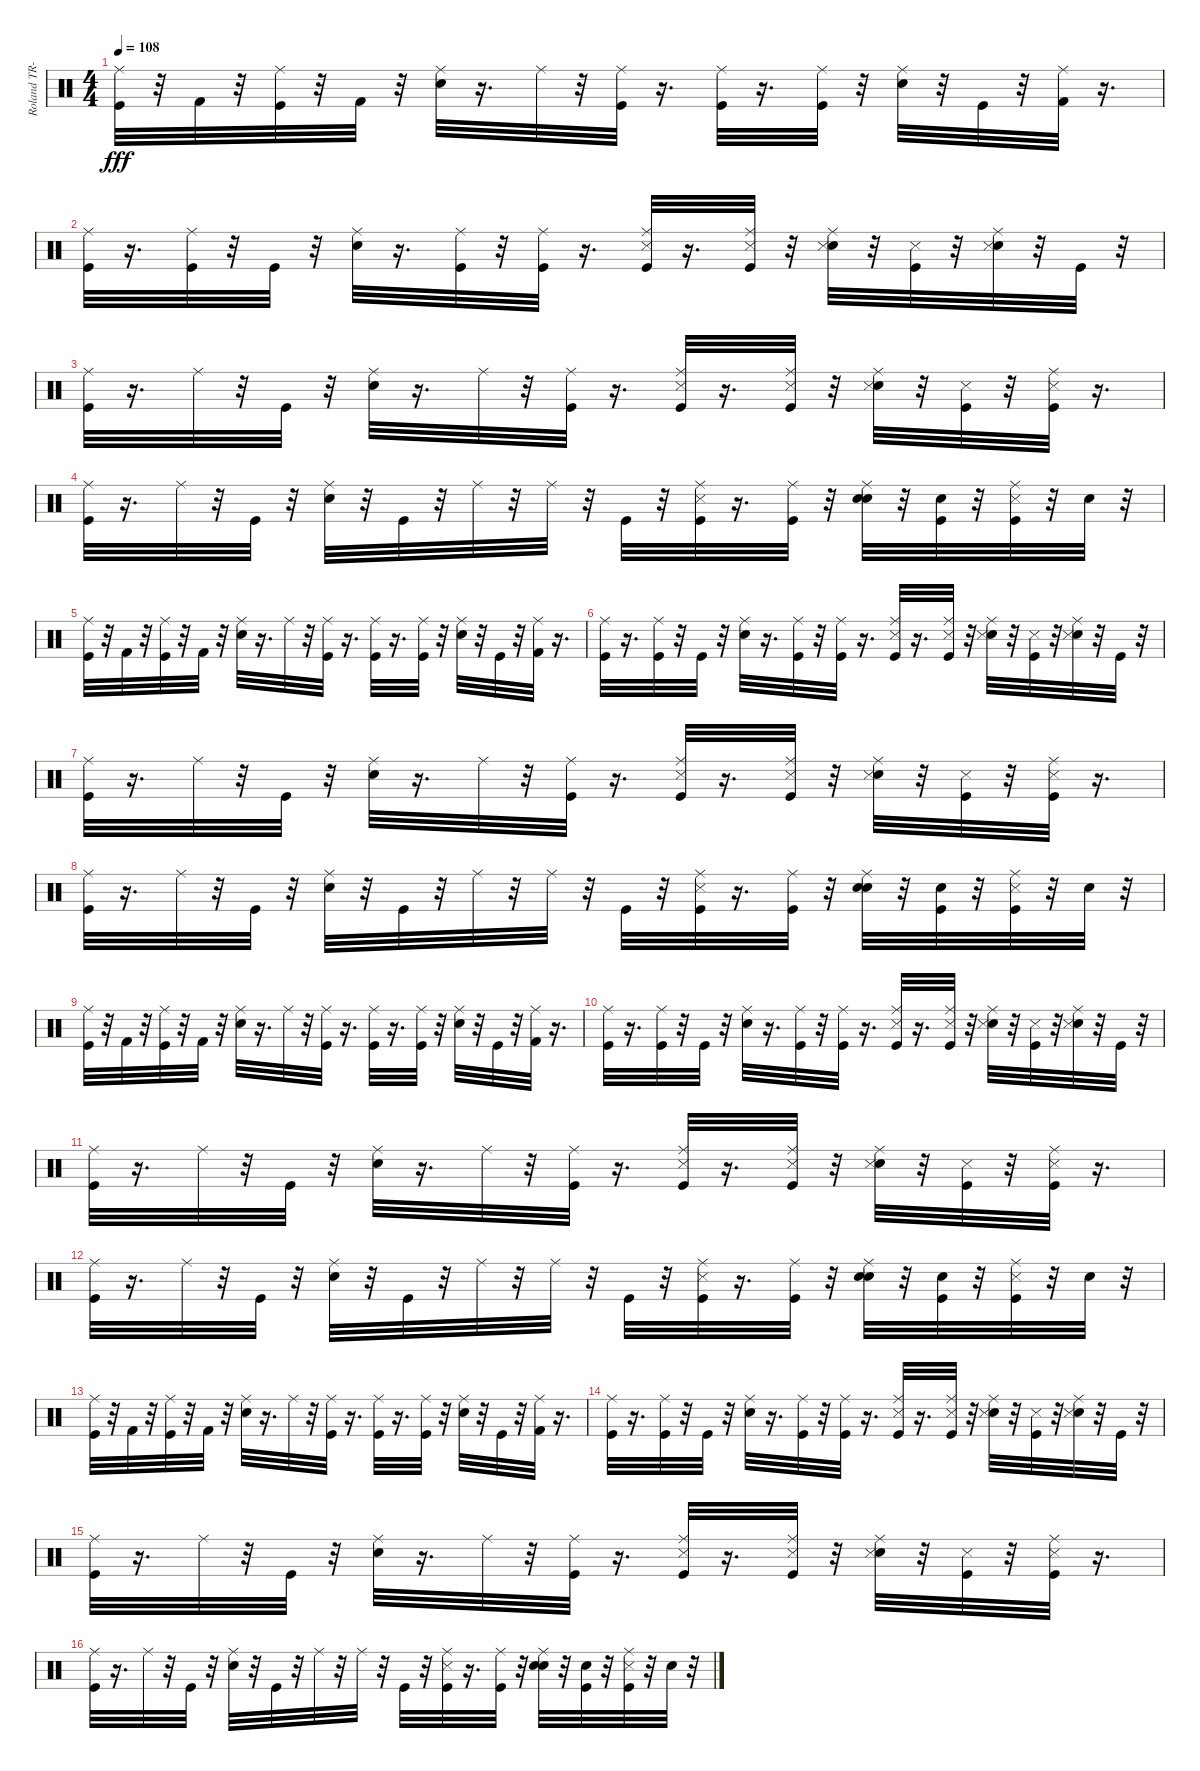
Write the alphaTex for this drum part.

\track ("Roland TR-707" "Roland TR-") {instrument percussion}
\staff {score}
\articulation defaults
\ts (4 4)
\tempo 108
\clef neutral
\ks c
("Kick (hit)" "Ride (middle)").32{dy fff} r.32 "Kick (hit) 2".32 r.32 ("Kick (hit)" "Ride (middle)").32 r.32 "Kick (hit) 2".32 r.32 ("Snare (hit) 2" "Ride (middle)").32 r.16{d} "Ride (middle)".32 r.32 ("Kick (hit)" "Ride (middle)").32 r.16{d} ("Kick (hit)" "Ride (middle)").32 r.16{d} ("Kick (hit)" "Ride (middle)").32 r.32 ("Snare (hit) 2" "Ride (middle)").32 r.32 "Kick (hit)".32 r.32 ("Kick (hit) 2" "Ride (middle)").32 r.16{d} |
("Kick (hit)" "Ride (middle)").32 r.16{d} ("Kick (hit)" "Ride (middle)").32 r.32 "Kick (hit)".32 r.32 ("Snare (hit) 2" "Ride (middle)").32 r.16{d} ("Kick (hit)" "Ride (middle)").32 r.32 ("Kick (hit)" "Ride (middle)").32 r.16{d} ("Kick (hit)" "Snare (side stick) 3" "Ride (middle)").32 r.16{d} ("Kick (hit)" "Snare (side stick) 3" "Ride (middle)").32 r.32 ("Snare (hit) 2" "Snare (side stick) 3" "Ride (middle)").32 r.32 ("Kick (hit)" "Snare (side stick) 3").32 r.32 ("Snare (hit) 2" "Snare (side stick) 3" "Ride (middle)").32 r.32 "Kick (hit)".32 r.32 |
("Kick (hit)" "Ride (middle)").32 r.16{d} "Ride (middle)".32 r.32 "Kick (hit)".32 r.32 ("Snare (hit) 2" "Ride (middle)").32 r.16{d} "Ride (middle)".32 r.32 ("Kick (hit)" "Ride (middle)").32 r.16{d} ("Kick (hit)" "Snare (side stick) 3" "Ride (middle)").32 r.16{d} ("Kick (hit)" "Snare (side stick) 3" "Ride (middle)").32 r.32 ("Snare (hit) 2" "Snare (side stick) 3" "Ride (middle)").32 r.32 ("Kick (hit)" "Snare (side stick) 3").32 r.32 ("Kick (hit)" "Snare (side stick) 3" "Ride (middle)").32 r.16{d} |
("Kick (hit)" "Ride (middle)").32 r.16{d} "Ride (middle)".32 r.32 "Kick (hit)".32 r.32 ("Snare (hit) 2" "Ride (middle)").32 r.32 "Kick (hit)".32 r.32 "Ride (middle)".32 r.32 "Ride (middle)".32 r.32 "Kick (hit)".32 r.32 ("Kick (hit)" "Snare (side stick) 3" "Ride (middle)").32 r.16{d} ("Kick (hit)" "Ride (middle)").32 r.32 ("Snare (hit) 2" "Hand Clap (hit)" "Ride (middle)").32 r.32 ("Kick (hit)" "Hand Clap (hit)").32 r.32 ("Kick (hit)" "Snare (side stick) 3" "Ride (middle)").32 r.32 "Hand Clap (hit)".32 r.32 |
("Kick (hit)" "Ride (middle)").32 r.32 "Kick (hit) 2".32 r.32 ("Kick (hit)" "Ride (middle)").32 r.32 "Kick (hit) 2".32 r.32 ("Snare (hit) 2" "Ride (middle)").32 r.16{d} "Ride (middle)".32 r.32 ("Kick (hit)" "Ride (middle)").32 r.16{d} ("Kick (hit)" "Ride (middle)").32 r.16{d} ("Kick (hit)" "Ride (middle)").32 r.32 ("Snare (hit) 2" "Ride (middle)").32 r.32 "Kick (hit)".32 r.32 ("Kick (hit) 2" "Ride (middle)").32 r.16{d} |
("Kick (hit)" "Ride (middle)").32 r.16{d} ("Kick (hit)" "Ride (middle)").32 r.32 "Kick (hit)".32 r.32 ("Snare (hit) 2" "Ride (middle)").32 r.16{d} ("Kick (hit)" "Ride (middle)").32 r.32 ("Kick (hit)" "Ride (middle)").32 r.16{d} ("Kick (hit)" "Snare (side stick) 3" "Ride (middle)").32 r.16{d} ("Kick (hit)" "Snare (side stick) 3" "Ride (middle)").32 r.32 ("Snare (hit) 2" "Snare (side stick) 3" "Ride (middle)").32 r.32 ("Kick (hit)" "Snare (side stick) 3").32 r.32 ("Snare (hit) 2" "Snare (side stick) 3" "Ride (middle)").32 r.32 "Kick (hit)".32 r.32 |
("Kick (hit)" "Ride (middle)").32 r.16{d} "Ride (middle)".32 r.32 "Kick (hit)".32 r.32 ("Snare (hit) 2" "Ride (middle)").32 r.16{d} "Ride (middle)".32 r.32 ("Kick (hit)" "Ride (middle)").32 r.16{d} ("Kick (hit)" "Snare (side stick) 3" "Ride (middle)").32 r.16{d} ("Kick (hit)" "Snare (side stick) 3" "Ride (middle)").32 r.32 ("Snare (hit) 2" "Snare (side stick) 3" "Ride (middle)").32 r.32 ("Kick (hit)" "Snare (side stick) 3").32 r.32 ("Kick (hit)" "Snare (side stick) 3" "Ride (middle)").32 r.16{d} |
("Kick (hit)" "Ride (middle)").32 r.16{d} "Ride (middle)".32 r.32 "Kick (hit)".32 r.32 ("Snare (hit) 2" "Ride (middle)").32 r.32 "Kick (hit)".32 r.32 "Ride (middle)".32 r.32 "Ride (middle)".32 r.32 "Kick (hit)".32 r.32 ("Kick (hit)" "Snare (side stick) 3" "Ride (middle)").32 r.16{d} ("Kick (hit)" "Ride (middle)").32 r.32 ("Snare (hit) 2" "Hand Clap (hit)" "Ride (middle)").32 r.32 ("Kick (hit)" "Hand Clap (hit)").32 r.32 ("Kick (hit)" "Snare (side stick) 3" "Ride (middle)").32 r.32 "Hand Clap (hit)".32 r.32 |
("Kick (hit)" "Ride (middle)").32 r.32 "Kick (hit) 2".32 r.32 ("Kick (hit)" "Ride (middle)").32 r.32 "Kick (hit) 2".32 r.32 ("Snare (hit) 2" "Ride (middle)").32 r.16{d} "Ride (middle)".32 r.32 ("Kick (hit)" "Ride (middle)").32 r.16{d} ("Kick (hit)" "Ride (middle)").32 r.16{d} ("Kick (hit)" "Ride (middle)").32 r.32 ("Snare (hit) 2" "Ride (middle)").32 r.32 "Kick (hit)".32 r.32 ("Kick (hit) 2" "Ride (middle)").32 r.16{d} |
("Kick (hit)" "Ride (middle)").32 r.16{d} ("Kick (hit)" "Ride (middle)").32 r.32 "Kick (hit)".32 r.32 ("Snare (hit) 2" "Ride (middle)").32 r.16{d} ("Kick (hit)" "Ride (middle)").32 r.32 ("Kick (hit)" "Ride (middle)").32 r.16{d} ("Kick (hit)" "Snare (side stick) 3" "Ride (middle)").32 r.16{d} ("Kick (hit)" "Snare (side stick) 3" "Ride (middle)").32 r.32 ("Snare (hit) 2" "Snare (side stick) 3" "Ride (middle)").32 r.32 ("Kick (hit)" "Snare (side stick) 3").32 r.32 ("Snare (hit) 2" "Snare (side stick) 3" "Ride (middle)").32 r.32 "Kick (hit)".32 r.32 |
("Kick (hit)" "Ride (middle)").32 r.16{d} "Ride (middle)".32 r.32 "Kick (hit)".32 r.32 ("Snare (hit) 2" "Ride (middle)").32 r.16{d} "Ride (middle)".32 r.32 ("Kick (hit)" "Ride (middle)").32 r.16{d} ("Kick (hit)" "Snare (side stick) 3" "Ride (middle)").32 r.16{d} ("Kick (hit)" "Snare (side stick) 3" "Ride (middle)").32 r.32 ("Snare (hit) 2" "Snare (side stick) 3" "Ride (middle)").32 r.32 ("Kick (hit)" "Snare (side stick) 3").32 r.32 ("Kick (hit)" "Snare (side stick) 3" "Ride (middle)").32 r.16{d} |
("Kick (hit)" "Ride (middle)").32 r.16{d} "Ride (middle)".32 r.32 "Kick (hit)".32 r.32 ("Snare (hit) 2" "Ride (middle)").32 r.32 "Kick (hit)".32 r.32 "Ride (middle)".32 r.32 "Ride (middle)".32 r.32 "Kick (hit)".32 r.32 ("Kick (hit)" "Snare (side stick) 3" "Ride (middle)").32 r.16{d} ("Kick (hit)" "Ride (middle)").32 r.32 ("Snare (hit) 2" "Hand Clap (hit)" "Ride (middle)").32 r.32 ("Kick (hit)" "Hand Clap (hit)").32 r.32 ("Kick (hit)" "Snare (side stick) 3" "Ride (middle)").32 r.32 "Hand Clap (hit)".32 r.32 |
("Kick (hit)" "Ride (middle)").32 r.32 "Kick (hit) 2".32 r.32 ("Kick (hit)" "Ride (middle)").32 r.32 "Kick (hit) 2".32 r.32 ("Snare (hit) 2" "Ride (middle)").32 r.16{d} "Ride (middle)".32 r.32 ("Kick (hit)" "Ride (middle)").32 r.16{d} ("Kick (hit)" "Ride (middle)").32 r.16{d} ("Kick (hit)" "Ride (middle)").32 r.32 ("Snare (hit) 2" "Ride (middle)").32 r.32 "Kick (hit)".32 r.32 ("Kick (hit) 2" "Ride (middle)").32 r.16{d} |
("Kick (hit)" "Ride (middle)").32 r.16{d} ("Kick (hit)" "Ride (middle)").32 r.32 "Kick (hit)".32 r.32 ("Snare (hit) 2" "Ride (middle)").32 r.16{d} ("Kick (hit)" "Ride (middle)").32 r.32 ("Kick (hit)" "Ride (middle)").32 r.16{d} ("Kick (hit)" "Snare (side stick) 3" "Ride (middle)").32 r.16{d} ("Kick (hit)" "Snare (side stick) 3" "Ride (middle)").32 r.32 ("Snare (hit) 2" "Snare (side stick) 3" "Ride (middle)").32 r.32 ("Kick (hit)" "Snare (side stick) 3").32 r.32 ("Snare (hit) 2" "Snare (side stick) 3" "Ride (middle)").32 r.32 "Kick (hit)".32 r.32 |
("Kick (hit)" "Ride (middle)").32 r.16{d} "Ride (middle)".32 r.32 "Kick (hit)".32 r.32 ("Snare (hit) 2" "Ride (middle)").32 r.16{d} "Ride (middle)".32 r.32 ("Kick (hit)" "Ride (middle)").32 r.16{d} ("Kick (hit)" "Snare (side stick) 3" "Ride (middle)").32 r.16{d} ("Kick (hit)" "Snare (side stick) 3" "Ride (middle)").32 r.32 ("Snare (hit) 2" "Snare (side stick) 3" "Ride (middle)").32 r.32 ("Kick (hit)" "Snare (side stick) 3").32 r.32 ("Kick (hit)" "Snare (side stick) 3" "Ride (middle)").32 r.16{d} |
("Kick (hit)" "Ride (middle)").32 r.16{d} "Ride (middle)".32 r.32 "Kick (hit)".32 r.32 ("Snare (hit) 2" "Ride (middle)").32 r.32 "Kick (hit)".32 r.32 "Ride (middle)".32 r.32 "Ride (middle)".32 r.32 "Kick (hit)".32 r.32 ("Kick (hit)" "Snare (side stick) 3" "Ride (middle)").32 r.16{d} ("Kick (hit)" "Ride (middle)").32 r.32 ("Snare (hit) 2" "Hand Clap (hit)" "Ride (middle)").32 r.32 ("Kick (hit)" "Hand Clap (hit)").32 r.32 ("Kick (hit)" "Snare (side stick) 3" "Ride (middle)").32 r.32 "Hand Clap (hit)".32 r.32
